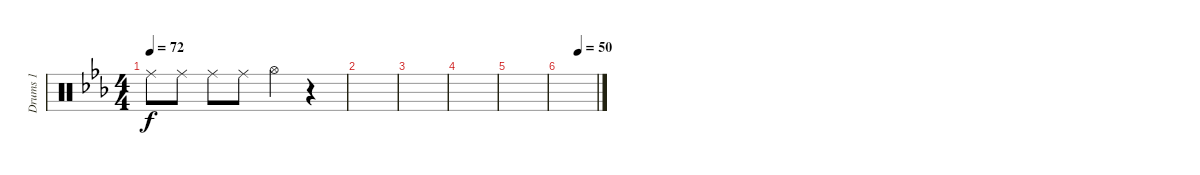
\track ("Drums 1" "Drums 1") {instrument percussion}
\staff {score}
\articulation defaults
\ts (4 4)
\tempo 72
\clef neutral
\ks eb "Ride (middle)".8{dy f} "Ride (middle)".8 "Ride (middle)".8 "Ride (middle)".8 "Hi-Hat (open)".4
r.4 |
|
|
|
|
\tempo (50 0.5)
